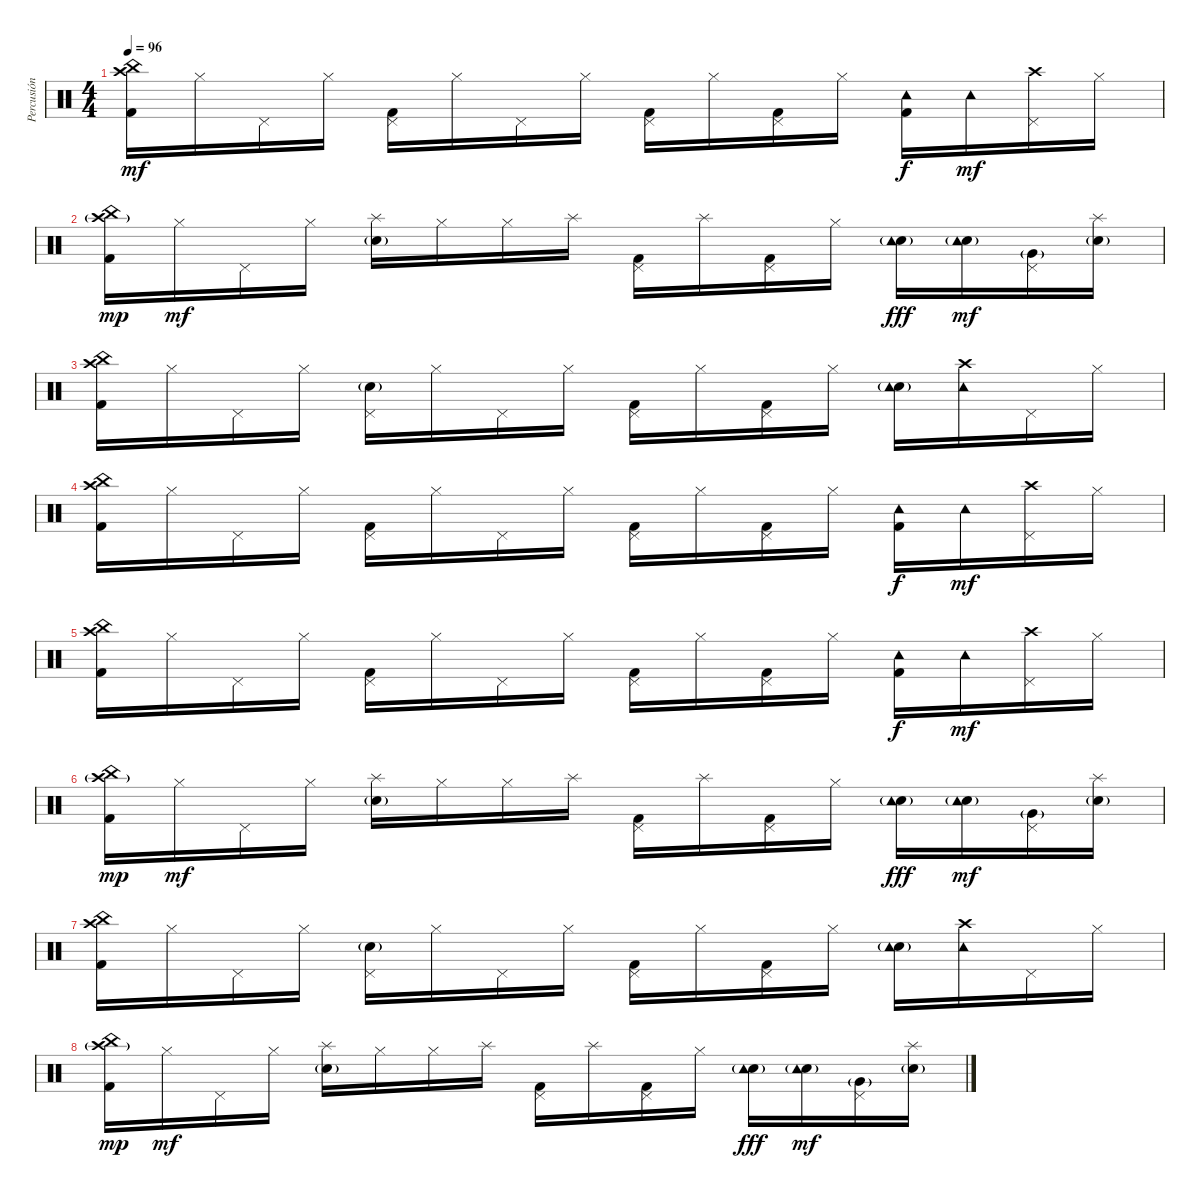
\track ("Percusión" "Percusión") {instrument percussion}
\staff {score}
\articulation defaults
\ts (4 4)
\tempo 96
\clef neutral
\ks c
("China (hit)" "Kick (hit) 2" "Crash high (hit)").16{dy mf} "Hi-Hat (closed)".16 "Pedal Hi-Hat (hit)".16 "Hi-Hat (closed)".16 ("Kick (hit) 2" "Pedal Hi-Hat (hit)").16 "Hi-Hat (closed)".16 "Pedal Hi-Hat (hit)".16 "Hi-Hat (closed)".16 ("Kick (hit) 2" "Pedal Hi-Hat (hit)").16 "Hi-Hat (closed)".16 ("Kick (hit) 2" "Pedal Hi-Hat (hit)").16 "Hi-Hat (closed)".16 ("Kick (hit) 2" "Tambourine (hit)").16{dy f} "Tambourine (hit)".16{dy mf} ("Crash high (hit)" "Pedal Hi-Hat (hit)").16 "Hi-Hat (closed)".16 |
("China (hit)" "Kick (hit) 2" "Crash high (hit)"{g}).16{dy mp} "Hi-Hat (closed)".16{dy mf} "Pedal Hi-Hat (hit)".16 "Hi-Hat (closed)".16 ("Electric Snare (hit)"{g} "Splash (hit)").16 "Hi-Hat (closed)".16 "Hi-Hat (closed)".16 "Splash (hit)".16 ("Kick (hit) 2" "Pedal Hi-Hat (hit)").16 "Splash (hit)".16 ("Kick (hit) 2" "Pedal Hi-Hat (hit)").16 "Hi-Hat (closed)".16 ("Electric Snare (hit)"{g} "Tambourine (hit)").16{dy fff} ("Electric Snare (hit)"{g} "Tambourine (hit)").16{dy mf} ("Very Low Tom (hit)"{g} "Pedal Hi-Hat (hit)").16 ("Electric Snare (hit)"{g} "Splash (hit)").16 |
("China (hit)" "Kick (hit) 2" "Crash high (hit)").16 "Hi-Hat (closed)".16 "Pedal Hi-Hat (hit)".16 "Hi-Hat (closed)".16 ("Electric Snare (hit)"{g} "Pedal Hi-Hat (hit)").16 "Hi-Hat (closed)".16 "Pedal Hi-Hat (hit)".16 "Hi-Hat (closed)".16 ("Kick (hit) 2" "Pedal Hi-Hat (hit)").16 "Hi-Hat (closed)".16 ("Kick (hit) 2" "Pedal Hi-Hat (hit)").16 "Hi-Hat (closed)".16 ("Electric Snare (hit)"{g} "Tambourine (hit)").16 ("Crash high (hit)" "Tambourine (hit)").16 "Pedal Hi-Hat (hit)".16 "Hi-Hat (closed)".16 |
("China (hit)" "Kick (hit) 2" "Crash high (hit)").16 "Hi-Hat (closed)".16 "Pedal Hi-Hat (hit)".16 "Hi-Hat (closed)".16 ("Kick (hit) 2" "Pedal Hi-Hat (hit)").16 "Hi-Hat (closed)".16 "Pedal Hi-Hat (hit)".16 "Hi-Hat (closed)".16 ("Kick (hit) 2" "Pedal Hi-Hat (hit)").16 "Hi-Hat (closed)".16 ("Kick (hit) 2" "Pedal Hi-Hat (hit)").16 "Hi-Hat (closed)".16 ("Kick (hit) 2" "Tambourine (hit)").16{dy f} "Tambourine (hit)".16{dy mf} ("Crash high (hit)" "Pedal Hi-Hat (hit)").16 "Hi-Hat (closed)".16 |
("China (hit)" "Kick (hit) 2" "Crash high (hit)").16 "Hi-Hat (closed)".16 "Pedal Hi-Hat (hit)".16 "Hi-Hat (closed)".16 ("Kick (hit) 2" "Pedal Hi-Hat (hit)").16 "Hi-Hat (closed)".16 "Pedal Hi-Hat (hit)".16 "Hi-Hat (closed)".16 ("Kick (hit) 2" "Pedal Hi-Hat (hit)").16 "Hi-Hat (closed)".16 ("Kick (hit) 2" "Pedal Hi-Hat (hit)").16 "Hi-Hat (closed)".16 ("Kick (hit) 2" "Tambourine (hit)").16{dy f} "Tambourine (hit)".16{dy mf} ("Crash high (hit)" "Pedal Hi-Hat (hit)").16 "Hi-Hat (closed)".16 |
("China (hit)" "Kick (hit) 2" "Crash high (hit)"{g}).16{dy mp} "Hi-Hat (closed)".16{dy mf} "Pedal Hi-Hat (hit)".16 "Hi-Hat (closed)".16 ("Electric Snare (hit)"{g} "Splash (hit)").16 "Hi-Hat (closed)".16 "Hi-Hat (closed)".16 "Splash (hit)".16 ("Kick (hit) 2" "Pedal Hi-Hat (hit)").16 "Splash (hit)".16 ("Kick (hit) 2" "Pedal Hi-Hat (hit)").16 "Hi-Hat (closed)".16 ("Electric Snare (hit)"{g} "Tambourine (hit)").16{dy fff} ("Electric Snare (hit)"{g} "Tambourine (hit)").16{dy mf} ("Very Low Tom (hit)"{g} "Pedal Hi-Hat (hit)").16 ("Electric Snare (hit)"{g} "Splash (hit)").16 |
("China (hit)" "Kick (hit) 2" "Crash high (hit)").16 "Hi-Hat (closed)".16 "Pedal Hi-Hat (hit)".16 "Hi-Hat (closed)".16 ("Electric Snare (hit)"{g} "Pedal Hi-Hat (hit)").16 "Hi-Hat (closed)".16 "Pedal Hi-Hat (hit)".16 "Hi-Hat (closed)".16 ("Kick (hit) 2" "Pedal Hi-Hat (hit)").16 "Hi-Hat (closed)".16 ("Kick (hit) 2" "Pedal Hi-Hat (hit)").16 "Hi-Hat (closed)".16 ("Electric Snare (hit)"{g} "Tambourine (hit)").16 ("Crash high (hit)" "Tambourine (hit)").16 "Pedal Hi-Hat (hit)".16 "Hi-Hat (closed)".16 |
("China (hit)" "Kick (hit) 2" "Crash high (hit)"{g}).16{dy mp} "Hi-Hat (closed)".16{dy mf} "Pedal Hi-Hat (hit)".16 "Hi-Hat (closed)".16 ("Electric Snare (hit)"{g} "Splash (hit)").16 "Hi-Hat (closed)".16 "Hi-Hat (closed)".16 "Splash (hit)".16 ("Kick (hit) 2" "Pedal Hi-Hat (hit)").16 "Splash (hit)".16 ("Kick (hit) 2" "Pedal Hi-Hat (hit)").16 "Hi-Hat (closed)".16 ("Electric Snare (hit)"{g} "Tambourine (hit)").16{dy fff} ("Electric Snare (hit)"{g} "Tambourine (hit)").16{dy mf} ("Very Low Tom (hit)"{g} "Pedal Hi-Hat (hit)").16 ("Electric Snare (hit)"{g} "Splash (hit)").16
